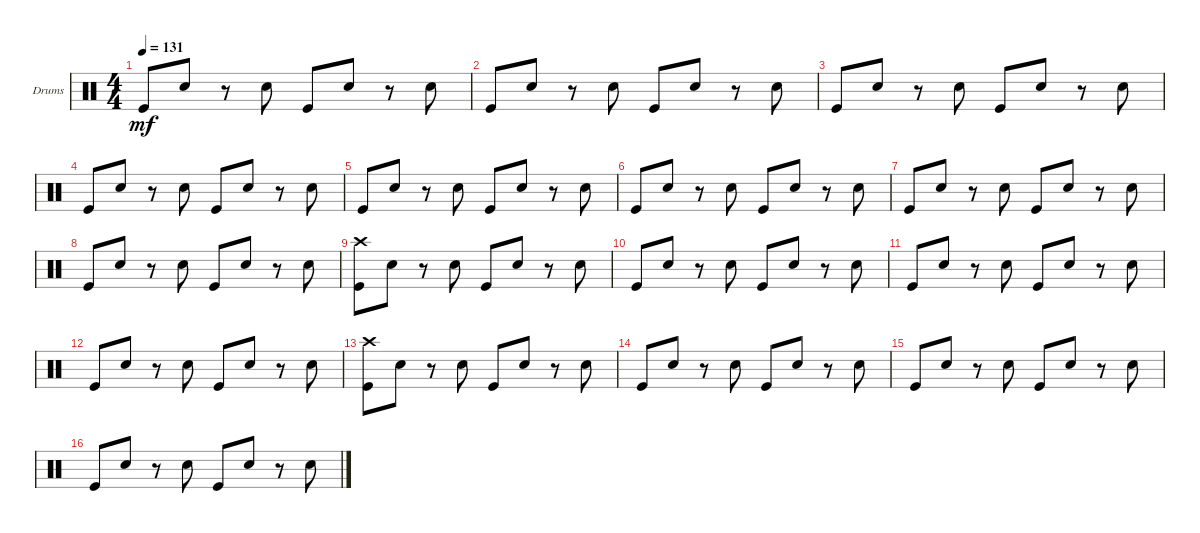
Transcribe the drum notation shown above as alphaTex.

\bracketExtendMode groupsimilarinstruments
\firstSystemTrackNameOrientation horizontal
\otherSystemsTrackNameOrientation horizontal
\track ("Drumkit" "Drums") {instrument percussion}
\staff {score}
\articulation defaults
\ts (4 4)
\tempo 131
\clef neutral
\scale
0.333333
\ks c "Kick (hit)".8{dy mf} "Snare (hit) 2".8
r.8 "Snare (hit) 2".8 "Kick (hit)".8 "Snare (hit) 2".8 r.8 "Snare (hit) 2".8 |
\scale
0.333333 "Kick (hit)".8 "Snare (hit) 2".8 r.8 "Snare (hit) 2".8 "Kick (hit)".8 "Snare (hit) 2".8 r.8 "Snare (hit) 2".8 |
\scale
0.333333 "Kick (hit)".8 "Snare (hit) 2".8 r.8 "Snare (hit) 2".8 "Kick (hit)".8 "Snare (hit) 2".8 r.8 "Snare (hit) 2".8 |
\scale
0.333333 "Kick (hit)".8 "Snare (hit) 2".8 r.8 "Snare (hit) 2".8 "Kick (hit)".8 "Snare (hit) 2".8 r.8 "Snare (hit) 2".8 |
\scale
0.333333 "Kick (hit)".8 "Snare (hit) 2".8 r.8 "Snare (hit) 2".8 "Kick (hit)".8 "Snare (hit) 2".8 r.8 "Snare (hit) 2".8 |
\scale
0.333333 "Kick (hit)".8 "Snare (hit) 2".8 r.8 "Snare (hit) 2".8 "Kick (hit)".8 "Snare (hit) 2".8 r.8 "Snare (hit) 2".8 |
\scale
0.333333 "Kick (hit)".8 "Snare (hit) 2".8 r.8 "Snare (hit) 2".8 "Kick (hit)".8 "Snare (hit) 2".8 r.8 "Snare (hit) 2".8 |
\scale
0.333333 "Kick (hit)".8 "Snare (hit) 2".8 r.8 "Snare (hit) 2".8 "Kick (hit)".8 "Snare (hit) 2".8 r.8 "Snare (hit) 2".8 |
\scale
0.333333 ("Kick (hit)" "Crash high (hit)").8 "Snare (hit) 2".8 r.8 "Snare (hit) 2".8 "Kick (hit)".8 "Snare (hit) 2".8 r.8 "Snare (hit) 2".8 |
\scale
0.333333 "Kick (hit)".8 "Snare (hit) 2".8 r.8 "Snare (hit) 2".8 "Kick (hit)".8 "Snare (hit) 2".8 r.8 "Snare (hit) 2".8 |
\scale
0.333333 "Kick (hit)".8 "Snare (hit) 2".8 r.8 "Snare (hit) 2".8 "Kick (hit)".8 "Snare (hit) 2".8 r.8 "Snare (hit) 2".8 |
\scale
0.333333 "Kick (hit)".8 "Snare (hit) 2".8 r.8 "Snare (hit) 2".8 "Kick (hit)".8 "Snare (hit) 2".8 r.8 "Snare (hit) 2".8 |
\scale
0.333333 ("Kick (hit)" "Crash high (hit)").8 "Snare (hit) 2".8 r.8 "Snare (hit) 2".8 "Kick (hit)".8 "Snare (hit) 2".8 r.8 "Snare (hit) 2".8 |
\scale
0.333333 "Kick (hit)".8 "Snare (hit) 2".8 r.8 "Snare (hit) 2".8 "Kick (hit)".8 "Snare (hit) 2".8 r.8 "Snare (hit) 2".8 |
\scale
0.333333 "Kick (hit)".8 "Snare (hit) 2".8 r.8 "Snare (hit) 2".8 "Kick (hit)".8 "Snare (hit) 2".8 r.8 "Snare (hit) 2".8 |
\scale
0.333333 "Kick (hit)".8 "Snare (hit) 2".8 r.8 "Snare (hit) 2".8 "Kick (hit)".8 "Snare (hit) 2".8 r.8 "Snare (hit) 2".8
